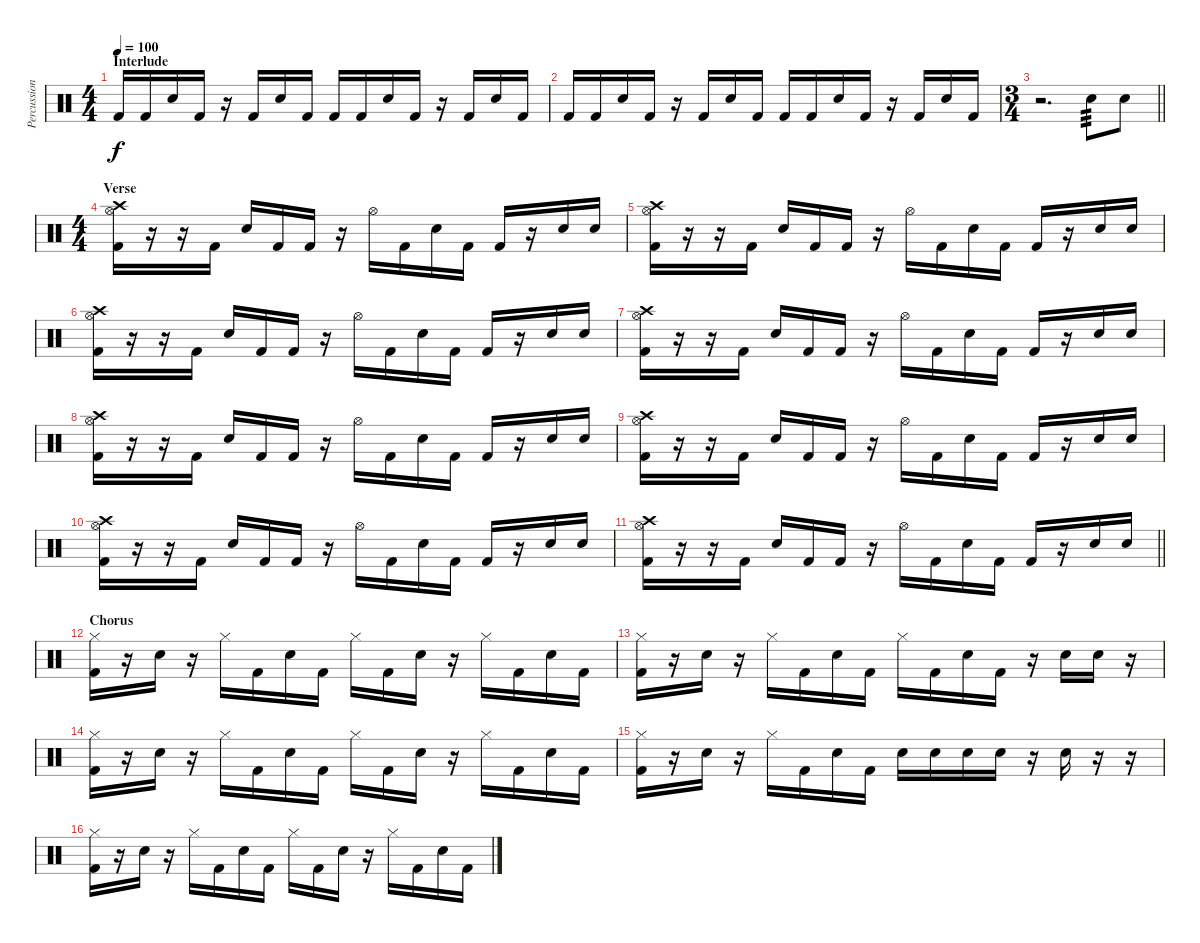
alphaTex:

\track ("Percussion" "Percussion") {instrument percussion}
\staff {score}
\articulation defaults
\ts (4 4)
\section ("" "Interlude")
\tempo 100
\clef neutral
\ks c "Kick (hit) 2".16{dy f} "Kick (hit) 2".16 "Snare (hit) 2".16 "Kick (hit) 2".16
r.16 "Kick (hit) 2".16 "Snare (hit) 2".16 "Kick (hit) 2".16 "Kick (hit) 2".16 "Kick (hit) 2".16 "Snare (hit) 2".16 "Kick (hit) 2".16 r.16 "Kick (hit) 2".16 "Snare (hit) 2".16 "Kick (hit) 2".16 |
"Kick (hit) 2".16 "Kick (hit) 2".16 "Snare (hit) 2".16 "Kick (hit) 2".16 r.16 "Kick (hit) 2".16 "Snare (hit) 2".16 "Kick (hit) 2".16 "Kick (hit) 2".16 "Kick (hit) 2".16 "Snare (hit) 2".16 "Kick (hit) 2".16 r.16 "Kick (hit) 2".16 "Snare (hit) 2".16 "Kick (hit) 2".16 |
\ts (3 4)
\barLineRight lightlight
r.2{d} "Snare (hit) 2".8{tp 3} "Snare (hit) 2".8 |
\ts (4 4)
\section ("" "Verse")
("Crash high (hit)" "Hi-Hat (open)" "Kick (hit) 2").16 r.16 r.16 "Kick (hit) 2".16 "Snare (hit) 2".16 "Kick (hit) 2".16 "Kick (hit) 2".16 r.16 "Hi-Hat (open)".16 "Kick (hit) 2".16 "Snare (hit) 2".16 "Kick (hit) 2".16 "Kick (hit) 2".16 r.16 "Snare (hit) 2".16 "Snare (hit) 2".16 |
("Crash high (hit)" "Hi-Hat (open)" "Kick (hit) 2").16 r.16 r.16 "Kick (hit) 2".16 "Snare (hit) 2".16 "Kick (hit) 2".16 "Kick (hit) 2".16 r.16 "Hi-Hat (open)".16 "Kick (hit) 2".16 "Snare (hit) 2".16 "Kick (hit) 2".16 "Kick (hit) 2".16 r.16 "Snare (hit) 2".16 "Snare (hit) 2".16 |
("Crash high (hit)" "Hi-Hat (open)" "Kick (hit) 2").16 r.16 r.16 "Kick (hit) 2".16 "Snare (hit) 2".16 "Kick (hit) 2".16 "Kick (hit) 2".16 r.16 "Hi-Hat (open)".16 "Kick (hit) 2".16 "Snare (hit) 2".16 "Kick (hit) 2".16 "Kick (hit) 2".16 r.16 "Snare (hit) 2".16 "Snare (hit) 2".16 |
("Crash high (hit)" "Hi-Hat (open)" "Kick (hit) 2").16 r.16 r.16 "Kick (hit) 2".16 "Snare (hit) 2".16 "Kick (hit) 2".16 "Kick (hit) 2".16 r.16 "Hi-Hat (open)".16 "Kick (hit) 2".16 "Snare (hit) 2".16 "Kick (hit) 2".16 "Kick (hit) 2".16 r.16 "Snare (hit) 2".16 "Snare (hit) 2".16 |
("Crash high (hit)" "Hi-Hat (open)" "Kick (hit) 2").16 r.16 r.16 "Kick (hit) 2".16 "Snare (hit) 2".16 "Kick (hit) 2".16 "Kick (hit) 2".16 r.16 "Hi-Hat (open)".16 "Kick (hit) 2".16 "Snare (hit) 2".16 "Kick (hit) 2".16 "Kick (hit) 2".16 r.16 "Snare (hit) 2".16 "Snare (hit) 2".16 |
("Crash high (hit)" "Hi-Hat (open)" "Kick (hit) 2").16 r.16 r.16 "Kick (hit) 2".16 "Snare (hit) 2".16 "Kick (hit) 2".16 "Kick (hit) 2".16 r.16 "Hi-Hat (open)".16 "Kick (hit) 2".16 "Snare (hit) 2".16 "Kick (hit) 2".16 "Kick (hit) 2".16 r.16 "Snare (hit) 2".16 "Snare (hit) 2".16 |
("Crash high (hit)" "Hi-Hat (open)" "Kick (hit) 2").16 r.16 r.16 "Kick (hit) 2".16 "Snare (hit) 2".16 "Kick (hit) 2".16 "Kick (hit) 2".16 r.16 "Hi-Hat (open)".16 "Kick (hit) 2".16 "Snare (hit) 2".16 "Kick (hit) 2".16 "Kick (hit) 2".16 r.16 "Snare (hit) 2".16 "Snare (hit) 2".16 |
\barLineRight lightlight
("Crash high (hit)" "Hi-Hat (open)" "Kick (hit) 2").16 r.16 r.16 "Kick (hit) 2".16 "Snare (hit) 2".16 "Kick (hit) 2".16 "Kick (hit) 2".16 r.16 "Hi-Hat (open)".16 "Kick (hit) 2".16 "Snare (hit) 2".16 "Kick (hit) 2".16 "Kick (hit) 2".16 r.16 "Snare (hit) 2".16 "Snare (hit) 2".16 |
\section ("" "Chorus")
("Hi-Hat (closed)" "Kick (hit) 2").16 r.16 "Snare (hit) 2".16 r.16 "Hi-Hat (closed)".16 "Kick (hit) 2".16 "Snare (hit) 2".16 "Kick (hit) 2".16 "Hi-Hat (closed)".16 "Kick (hit) 2".16 "Snare (hit) 2".16 r.16 "Hi-Hat (closed)".16 "Kick (hit) 2".16 "Snare (hit) 2".16 "Kick (hit) 2".16 |
("Hi-Hat (closed)" "Kick (hit) 2").16 r.16 "Snare (hit) 2".16 r.16 "Hi-Hat (closed)".16 "Kick (hit) 2".16 "Snare (hit) 2".16 "Kick (hit) 2".16 "Hi-Hat (closed)".16 "Kick (hit) 2".16 "Snare (hit) 2".16 "Kick (hit) 2".16 r.16 "Snare (hit) 2".16 "Snare (hit) 2".16 r.16 |
("Hi-Hat (closed)" "Kick (hit) 2").16 r.16 "Snare (hit) 2".16 r.16 "Hi-Hat (closed)".16 "Kick (hit) 2".16 "Snare (hit) 2".16 "Kick (hit) 2".16 "Hi-Hat (closed)".16 "Kick (hit) 2".16 "Snare (hit) 2".16 r.16 "Hi-Hat (closed)".16 "Kick (hit) 2".16 "Snare (hit) 2".16 "Kick (hit) 2".16 |
("Hi-Hat (closed)" "Kick (hit) 2").16 r.16 "Snare (hit) 2".16 r.16 "Hi-Hat (closed)".16 "Kick (hit) 2".16 "Snare (hit) 2".16 "Kick (hit) 2".16 "Snare (hit) 2".16 "Snare (hit) 2".16 "Snare (hit) 2".16 "Snare (hit) 2".16 r.16 "Snare (hit) 2".16 r.16 r.16 |
("Hi-Hat (closed)" "Kick (hit) 2").16 r.16 "Snare (hit) 2".16 r.16 "Hi-Hat (closed)".16 "Kick (hit) 2".16 "Snare (hit) 2".16 "Kick (hit) 2".16 "Hi-Hat (closed)".16 "Kick (hit) 2".16 "Snare (hit) 2".16 r.16 "Hi-Hat (closed)".16 "Kick (hit) 2".16 "Snare (hit) 2".16 "Kick (hit) 2".16
